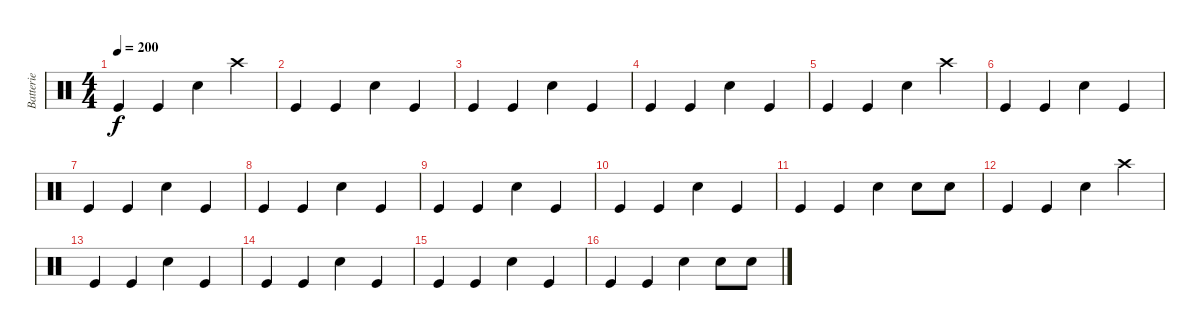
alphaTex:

\track ("Batterie" "Batterie") {instrument percussion}
\staff {score}
\articulation defaults
\ts (4 4)
\tempo 200
\clef neutral
\ks c "Kick (hit)".4{dy f} "Kick (hit)".4 "Electric Snare (hit)".4 "Crash high (hit)".4
|
"Kick (hit)".4 "Kick (hit)".4 "Electric Snare (hit)".4 "Kick (hit)".4 |
"Kick (hit)".4 "Kick (hit)".4 "Electric Snare (hit)".4 "Kick (hit)".4 |
"Kick (hit)".4 "Kick (hit)".4 "Electric Snare (hit)".4 "Kick (hit)".4 |
"Kick (hit)".4 "Kick (hit)".4 "Electric Snare (hit)".4 "Crash high (hit)".4 |
"Kick (hit)".4 "Kick (hit)".4 "Electric Snare (hit)".4 "Kick (hit)".4 |
"Kick (hit)".4 "Kick (hit)".4 "Electric Snare (hit)".4 "Kick (hit)".4 |
"Kick (hit)".4 "Kick (hit)".4 "Electric Snare (hit)".4 "Kick (hit)".4 |
"Kick (hit)".4 "Kick (hit)".4 "Electric Snare (hit)".4 "Kick (hit)".4 |
"Kick (hit)".4 "Kick (hit)".4 "Electric Snare (hit)".4 "Kick (hit)".4 |
"Kick (hit)".4 "Kick (hit)".4 "Electric Snare (hit)".4 "Electric Snare (hit)".8 "Electric Snare (hit)".8 |
"Kick (hit)".4 "Kick (hit)".4 "Electric Snare (hit)".4 "Crash high (hit)".4 |
"Kick (hit)".4 "Kick (hit)".4 "Electric Snare (hit)".4 "Kick (hit)".4 |
"Kick (hit)".4 "Kick (hit)".4 "Electric Snare (hit)".4 "Kick (hit)".4 |
"Kick (hit)".4 "Kick (hit)".4 "Electric Snare (hit)".4 "Kick (hit)".4 |
"Kick (hit)".4 "Kick (hit)".4 "Electric Snare (hit)".4 "Electric Snare (hit)".8 "Electric Snare (hit)".8
